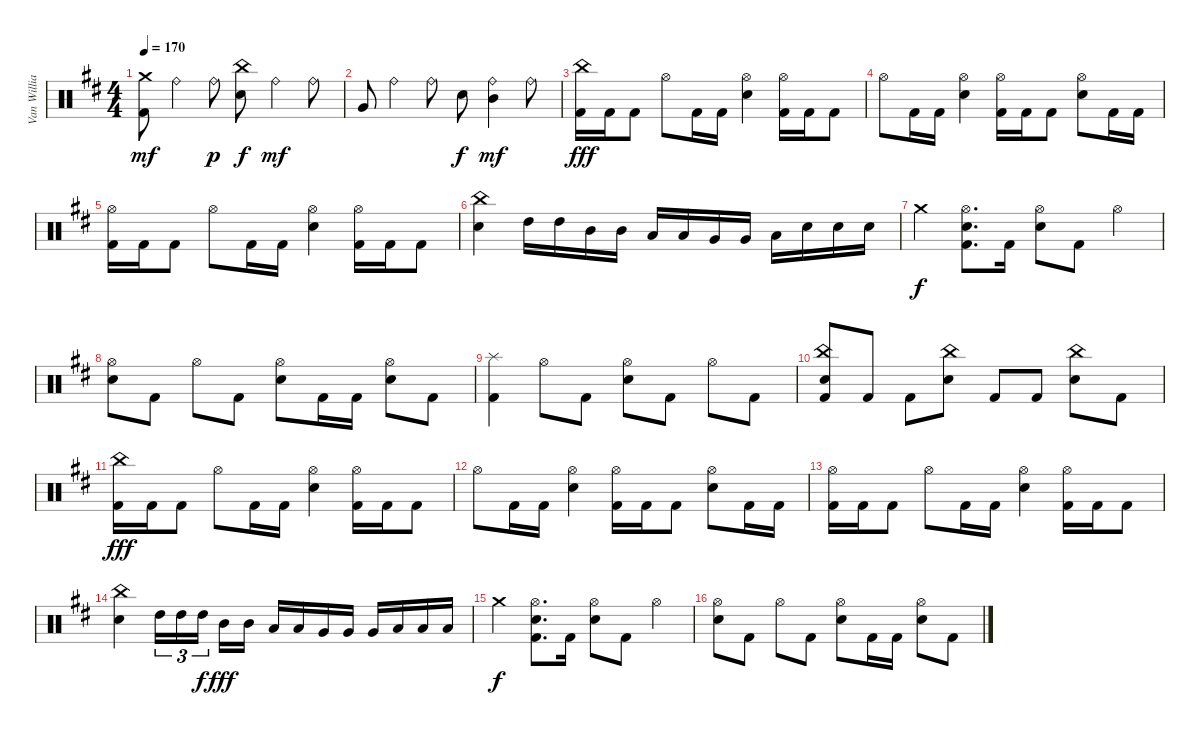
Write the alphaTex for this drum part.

\track ("Van Williams" "Van Willia") {instrument percussion}
\staff {score}
\articulation defaults
\ts (4 4)
\tempo 170
\clef neutral
\ks d
("Crash medium (hit)" "Kick (hit) 2").8{dy mf} "Ride (bell)".4 "Ride (bell)".8{dy p} ("China (hit)" "Electric Snare (hit)").8{dy f} "Ride (bell)".4{dy mf} "Ride (bell)".8 |
"Very Low Tom (hit)".8 "Ride (bell)".4 "Ride (bell)".8 "Electric Snare (hit)".8{dy f} ("Ride (bell)" "Mid Tom (hit)").4{dy mf} "Ride (bell)".8 |
("China (hit)" "Kick (hit) 2").16{dy fff} "Kick (hit) 2".16 "Kick (hit) 2".8 "Hi-Hat (open)".8 "Kick (hit) 2".16 "Kick (hit) 2".16 ("Hi-Hat (open)" "Electric Snare (hit)").4 ("Hi-Hat (open)" "Kick (hit) 2").16 "Kick (hit) 2".16 "Kick (hit) 2".8 |
"Hi-Hat (open)".8 "Kick (hit) 2".16 "Kick (hit) 2".16 ("Hi-Hat (open)" "Electric Snare (hit)").4 ("Hi-Hat (open)" "Kick (hit) 2").16 "Kick (hit) 2".16 "Kick (hit) 2".8 ("Hi-Hat (open)" "Electric Snare (hit)").8 "Kick (hit) 2".16 "Kick (hit) 2".16 |
("Hi-Hat (open)" "Kick (hit) 2").16 "Kick (hit) 2".16 "Kick (hit) 2".8 "Hi-Hat (open)".8 "Kick (hit) 2".16 "Kick (hit) 2".16 ("Hi-Hat (open)" "Electric Snare (hit)").4 ("Hi-Hat (open)" "Kick (hit) 2").16 "Kick (hit) 2".16 "Kick (hit) 2".8 |
("China (hit)" "Electric Snare (hit)").4 "High Tom (hit)".16 "High Tom (hit)".16 "Mid Tom (hit)".16 "Mid Tom (hit)".16 "Low Tom (hit)".16 "Low Tom (hit)".16 "Very Low Tom (hit)".16 "Very Low Tom (hit)".16 "Low Floor Tom (hit)".16 "Electric Snare (hit)".16 "Electric Snare (hit)".16 "Electric Snare (hit)".16 |
"Crash medium (hit)".4{dy f} ("Hi-Hat (open)" "Electric Snare (hit)" "Kick (hit) 2").8{d} "Kick (hit) 2".16 ("Hi-Hat (open)" "Electric Snare (hit)").8 "Kick (hit) 2".8 "Hi-Hat (open)".4 |
("Hi-Hat (open)" "Electric Snare (hit)").8 "Kick (hit) 2".8 "Hi-Hat (open)".8 "Kick (hit) 2".8 ("Hi-Hat (open)" "Electric Snare (hit)").8 "Kick (hit) 2".16 "Kick (hit) 2".16 ("Hi-Hat (open)" "Electric Snare (hit)").8 "Kick (hit) 2".8 |
("Splash (hit)" "Kick (hit) 2").4 "Hi-Hat (open)".8 "Kick (hit) 2".8 ("Hi-Hat (open)" "Electric Snare (hit)").8 "Kick (hit) 2".8 "Hi-Hat (open)".8 "Kick (hit) 2".8 |
("China (hit)" "Electric Snare (hit)" "Kick (hit) 2").8 "Kick (hit) 2".8 "Kick (hit) 2".8 ("China (hit)" "Electric Snare (hit)").8 "Kick (hit) 2".8 "Kick (hit) 2".8 ("China (hit)" "Electric Snare (hit)").8 "Kick (hit) 2".8 |
("China (hit)" "Kick (hit) 2").16{dy fff} "Kick (hit) 2".16 "Kick (hit) 2".8 "Hi-Hat (open)".8 "Kick (hit) 2".16 "Kick (hit) 2".16 ("Hi-Hat (open)" "Electric Snare (hit)").4 ("Hi-Hat (open)" "Kick (hit) 2").16 "Kick (hit) 2".16 "Kick (hit) 2".8 |
"Hi-Hat (open)".8 "Kick (hit) 2".16 "Kick (hit) 2".16 ("Hi-Hat (open)" "Electric Snare (hit)").4 ("Hi-Hat (open)" "Kick (hit) 2").16 "Kick (hit) 2".16 "Kick (hit) 2".8 ("Hi-Hat (open)" "Electric Snare (hit)").8 "Kick (hit) 2".16 "Kick (hit) 2".16 |
("Hi-Hat (open)" "Kick (hit) 2").16 "Kick (hit) 2".16 "Kick (hit) 2".8 "Hi-Hat (open)".8 "Kick (hit) 2".16 "Kick (hit) 2".16 ("Hi-Hat (open)" "Electric Snare (hit)").4 ("Hi-Hat (open)" "Kick (hit) 2").16 "Kick (hit) 2".16 "Kick (hit) 2".8 |
("China (hit)" "Electric Snare (hit)").4 "High Tom (hit)".16{tu (3 2)} "High Tom (hit)".16{tu (3 2)} "High Tom (hit)".16{tu (3 2) dy f beam splitsecondary} "Mid Tom (hit)".16{dy fff} "Mid Tom (hit)".16 "Low Tom (hit)".16 "Low Tom (hit)".16 "Very Low Tom (hit)".16 "Very Low Tom (hit)".16 "Very Low Tom (hit)".16 "Low Floor Tom (hit)".16 "Low Floor Tom (hit)".16 "Low Floor Tom (hit)".16 |
"Crash medium (hit)".4{dy f} ("Hi-Hat (open)" "Electric Snare (hit)" "Kick (hit) 2").8{d} "Kick (hit) 2".16 ("Hi-Hat (open)" "Electric Snare (hit)").8 "Kick (hit) 2".8 "Hi-Hat (open)".4 |
("Hi-Hat (open)" "Electric Snare (hit)").8 "Kick (hit) 2".8 "Hi-Hat (open)".8 "Kick (hit) 2".8 ("Hi-Hat (open)" "Electric Snare (hit)").8 "Kick (hit) 2".16 "Kick (hit) 2".16 ("Hi-Hat (open)" "Electric Snare (hit)").8 "Kick (hit) 2".8
